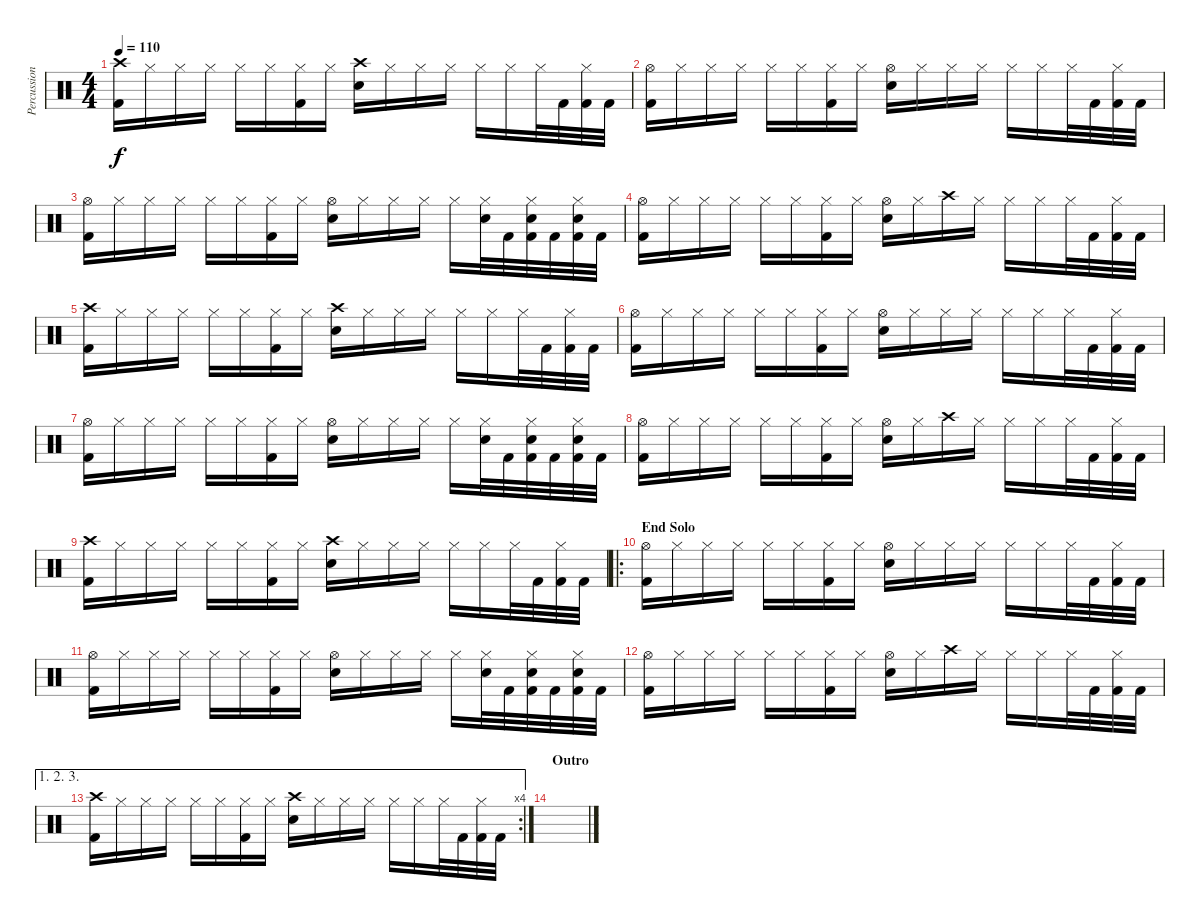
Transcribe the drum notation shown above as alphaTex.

\track ("Percussion" "Percussion") {instrument percussion}
\staff {score}
\articulation defaults
\ts (4 4)
\tempo 110
\clef neutral
\ks c
("Crash high (hit)" "Kick (hit) 2").16{dy f} "Hi-Hat (closed)".16 "Hi-Hat (closed)".16 "Hi-Hat (closed)".16 "Hi-Hat (closed)".16 "Hi-Hat (closed)".16 ("Hi-Hat (closed)" "Kick (hit) 2").16 "Hi-Hat (closed)".16 ("Crash high (hit)" "Electric Snare (hit)").16 "Hi-Hat (closed)".16 "Hi-Hat (closed)".16 "Hi-Hat (closed)".16 "Hi-Hat (closed)".16 "Hi-Hat (closed)".16 "Hi-Hat (closed)".32 "Kick (hit) 2".32 ("Hi-Hat (closed)" "Kick (hit) 2").32 "Kick (hit) 2".32 |
("Hi-Hat (open)" "Kick (hit) 2").16 "Hi-Hat (closed)".16 "Hi-Hat (closed)".16 "Hi-Hat (closed)".16 "Hi-Hat (closed)".16 "Hi-Hat (closed)".16 ("Hi-Hat (closed)" "Kick (hit) 2").16 "Hi-Hat (closed)".16 ("Hi-Hat (open)" "Electric Snare (hit)").16 "Hi-Hat (closed)".16 "Hi-Hat (closed)".16 "Hi-Hat (closed)".16 "Hi-Hat (closed)".16 "Hi-Hat (closed)".16 "Hi-Hat (closed)".32 "Kick (hit) 2".32 ("Hi-Hat (closed)" "Kick (hit) 2").32 "Kick (hit) 2".32 |
("Hi-Hat (open)" "Kick (hit) 2").16 "Hi-Hat (closed)".16 "Hi-Hat (closed)".16 "Hi-Hat (closed)".16 "Hi-Hat (closed)".16 "Hi-Hat (closed)".16 ("Hi-Hat (closed)" "Kick (hit) 2").16 "Hi-Hat (closed)".16 ("Hi-Hat (open)" "Electric Snare (hit)").16 "Hi-Hat (closed)".16 "Hi-Hat (closed)".16 "Hi-Hat (closed)".16 "Hi-Hat (closed)".16 ("Hi-Hat (closed)" "Electric Snare (hit)").32 "Kick (hit) 2".32 ("Hi-Hat (closed)" "Electric Snare (hit)" "Kick (hit) 2").32 "Kick (hit) 2".32 ("Hi-Hat (closed)" "Electric Snare (hit)" "Kick (hit) 2").32 "Kick (hit) 2".32 |
("Hi-Hat (open)" "Kick (hit) 2").16 "Hi-Hat (closed)".16 "Hi-Hat (closed)".16 "Hi-Hat (closed)".16 "Hi-Hat (closed)".16 "Hi-Hat (closed)".16 ("Hi-Hat (closed)" "Kick (hit) 2").16 "Hi-Hat (closed)".16 ("Hi-Hat (open)" "Electric Snare (hit)").16 "Hi-Hat (closed)".16 "Crash high (hit)".16 "Hi-Hat (closed)".16 "Hi-Hat (closed)".16 "Hi-Hat (closed)".16 "Hi-Hat (closed)".32 "Kick (hit) 2".32 ("Hi-Hat (closed)" "Kick (hit) 2").32 "Kick (hit) 2".32 |
("Crash high (hit)" "Kick (hit) 2").16 "Hi-Hat (closed)".16 "Hi-Hat (closed)".16 "Hi-Hat (closed)".16 "Hi-Hat (closed)".16 "Hi-Hat (closed)".16 ("Hi-Hat (closed)" "Kick (hit) 2").16 "Hi-Hat (closed)".16 ("Crash high (hit)" "Electric Snare (hit)").16 "Hi-Hat (closed)".16 "Hi-Hat (closed)".16 "Hi-Hat (closed)".16 "Hi-Hat (closed)".16 "Hi-Hat (closed)".16 "Hi-Hat (closed)".32 "Kick (hit) 2".32 ("Hi-Hat (closed)" "Kick (hit) 2").32 "Kick (hit) 2".32 |
("Hi-Hat (open)" "Kick (hit) 2").16 "Hi-Hat (closed)".16 "Hi-Hat (closed)".16 "Hi-Hat (closed)".16 "Hi-Hat (closed)".16 "Hi-Hat (closed)".16 ("Hi-Hat (closed)" "Kick (hit) 2").16 "Hi-Hat (closed)".16 ("Hi-Hat (open)" "Electric Snare (hit)").16 "Hi-Hat (closed)".16 "Hi-Hat (closed)".16 "Hi-Hat (closed)".16 "Hi-Hat (closed)".16 "Hi-Hat (closed)".16 "Hi-Hat (closed)".32 "Kick (hit) 2".32 ("Hi-Hat (closed)" "Kick (hit) 2").32 "Kick (hit) 2".32 |
("Hi-Hat (open)" "Kick (hit) 2").16 "Hi-Hat (closed)".16 "Hi-Hat (closed)".16 "Hi-Hat (closed)".16 "Hi-Hat (closed)".16 "Hi-Hat (closed)".16 ("Hi-Hat (closed)" "Kick (hit) 2").16 "Hi-Hat (closed)".16 ("Hi-Hat (open)" "Electric Snare (hit)").16 "Hi-Hat (closed)".16 "Hi-Hat (closed)".16 "Hi-Hat (closed)".16 "Hi-Hat (closed)".16 ("Hi-Hat (closed)" "Electric Snare (hit)").32 "Kick (hit) 2".32 ("Hi-Hat (closed)" "Electric Snare (hit)" "Kick (hit) 2").32 "Kick (hit) 2".32 ("Hi-Hat (closed)" "Electric Snare (hit)" "Kick (hit) 2").32 "Kick (hit) 2".32 |
("Hi-Hat (open)" "Kick (hit) 2").16 "Hi-Hat (closed)".16 "Hi-Hat (closed)".16 "Hi-Hat (closed)".16 "Hi-Hat (closed)".16 "Hi-Hat (closed)".16 ("Hi-Hat (closed)" "Kick (hit) 2").16 "Hi-Hat (closed)".16 ("Hi-Hat (open)" "Electric Snare (hit)").16 "Hi-Hat (closed)".16 "Crash high (hit)".16 "Hi-Hat (closed)".16 "Hi-Hat (closed)".16 "Hi-Hat (closed)".16 "Hi-Hat (closed)".32 "Kick (hit) 2".32 ("Hi-Hat (closed)" "Kick (hit) 2").32 "Kick (hit) 2".32 |
("Crash high (hit)" "Kick (hit) 2").16 "Hi-Hat (closed)".16 "Hi-Hat (closed)".16 "Hi-Hat (closed)".16 "Hi-Hat (closed)".16 "Hi-Hat (closed)".16 ("Hi-Hat (closed)" "Kick (hit) 2").16 "Hi-Hat (closed)".16 ("Crash high (hit)" "Electric Snare (hit)").16 "Hi-Hat (closed)".16 "Hi-Hat (closed)".16 "Hi-Hat (closed)".16 "Hi-Hat (closed)".16 "Hi-Hat (closed)".16 "Hi-Hat (closed)".32 "Kick (hit) 2".32 ("Hi-Hat (closed)" "Kick (hit) 2").32 "Kick (hit) 2".32 |
\ro
\section ("" "End Solo")
("Hi-Hat (open)" "Kick (hit) 2").16 "Hi-Hat (closed)".16 "Hi-Hat (closed)".16 "Hi-Hat (closed)".16 "Hi-Hat (closed)".16 "Hi-Hat (closed)".16 ("Hi-Hat (closed)" "Kick (hit) 2").16 "Hi-Hat (closed)".16 ("Hi-Hat (open)" "Electric Snare (hit)").16 "Hi-Hat (closed)".16 "Hi-Hat (closed)".16 "Hi-Hat (closed)".16 "Hi-Hat (closed)".16 "Hi-Hat (closed)".16 "Hi-Hat (closed)".32 "Kick (hit) 2".32 ("Hi-Hat (closed)" "Kick (hit) 2").32 "Kick (hit) 2".32 |
("Hi-Hat (open)" "Kick (hit) 2").16 "Hi-Hat (closed)".16 "Hi-Hat (closed)".16 "Hi-Hat (closed)".16 "Hi-Hat (closed)".16 "Hi-Hat (closed)".16 ("Hi-Hat (closed)" "Kick (hit) 2").16 "Hi-Hat (closed)".16 ("Hi-Hat (open)" "Electric Snare (hit)").16 "Hi-Hat (closed)".16 "Hi-Hat (closed)".16 "Hi-Hat (closed)".16 "Hi-Hat (closed)".16 ("Hi-Hat (closed)" "Electric Snare (hit)").32 "Kick (hit) 2".32 ("Hi-Hat (closed)" "Electric Snare (hit)" "Kick (hit) 2").32 "Kick (hit) 2".32 ("Hi-Hat (closed)" "Electric Snare (hit)" "Kick (hit) 2").32 "Kick (hit) 2".32 |
("Hi-Hat (open)" "Kick (hit) 2").16 "Hi-Hat (closed)".16 "Hi-Hat (closed)".16 "Hi-Hat (closed)".16 "Hi-Hat (closed)".16 "Hi-Hat (closed)".16 ("Hi-Hat (closed)" "Kick (hit) 2").16 "Hi-Hat (closed)".16 ("Hi-Hat (open)" "Electric Snare (hit)").16 "Hi-Hat (closed)".16 "Crash high (hit)".16 "Hi-Hat (closed)".16 "Hi-Hat (closed)".16 "Hi-Hat (closed)".16 "Hi-Hat (closed)".32 "Kick (hit) 2".32 ("Hi-Hat (closed)" "Kick (hit) 2").32 "Kick (hit) 2".32 |
\ae (1 2 3)
\rc 4
("Crash high (hit)" "Kick (hit) 2").16 "Hi-Hat (closed)".16 "Hi-Hat (closed)".16 "Hi-Hat (closed)".16 "Hi-Hat (closed)".16 "Hi-Hat (closed)".16 ("Hi-Hat (closed)" "Kick (hit) 2").16 "Hi-Hat (closed)".16 ("Crash high (hit)" "Electric Snare (hit)").16 "Hi-Hat (closed)".16 "Hi-Hat (closed)".16 "Hi-Hat (closed)".16 "Hi-Hat (closed)".16 "Hi-Hat (closed)".16 "Hi-Hat (closed)".32 "Kick (hit) 2".32 ("Hi-Hat (closed)" "Kick (hit) 2").32 "Kick (hit) 2".32 |
\section ("" "Outro")
